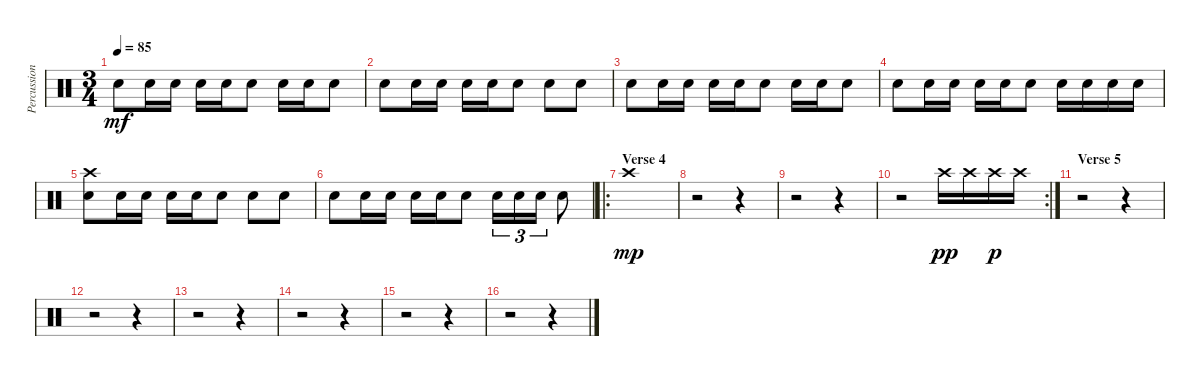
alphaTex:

\track ("Percussion" "Percussion") {instrument percussion}
\staff {score}
\articulation defaults
\ts (3 4)
\tempo 85
\clef neutral
\ks c "Electric Snare (hit)".8{dy mf} "Electric Snare (hit)".16 "Electric Snare (hit)".16 "Electric Snare (hit)".16 "Electric Snare (hit)".16 "Electric Snare (hit)".8 "Electric Snare (hit)".16 "Electric Snare (hit)".16 "Electric Snare (hit)".8
|
"Electric Snare (hit)".8 "Electric Snare (hit)".16 "Electric Snare (hit)".16 "Electric Snare (hit)".16 "Electric Snare (hit)".16 "Electric Snare (hit)".8 "Electric Snare (hit)".8 "Electric Snare (hit)".8 |
"Electric Snare (hit)".8 "Electric Snare (hit)".16 "Electric Snare (hit)".16 "Electric Snare (hit)".16 "Electric Snare (hit)".16 "Electric Snare (hit)".8 "Electric Snare (hit)".16 "Electric Snare (hit)".16 "Electric Snare (hit)".8 |
"Electric Snare (hit)".8 "Electric Snare (hit)".16 "Electric Snare (hit)".16 "Electric Snare (hit)".16 "Electric Snare (hit)".16 "Electric Snare (hit)".8 "Electric Snare (hit)".16 "Electric Snare (hit)".16 "Electric Snare (hit)".16 "Electric Snare (hit)".16 |
("Crash high (hit)" "Electric Snare (hit)").8 "Electric Snare (hit)".16 "Electric Snare (hit)".16 "Electric Snare (hit)".16 "Electric Snare (hit)".16 "Electric Snare (hit)".8 "Electric Snare (hit)".8 "Electric Snare (hit)".8 |
"Electric Snare (hit)".8 "Electric Snare (hit)".16 "Electric Snare (hit)".16 "Electric Snare (hit)".16 "Electric Snare (hit)".16 "Electric Snare (hit)".8 "Electric Snare (hit)".16{tu (3 2)} "Electric Snare (hit)".16{tu (3 2)} "Electric Snare (hit)".16{tu (3 2)} "Electric Snare (hit)".8 |
\ro
\section ("" "Verse 4")
"Crash high (hit)".1{dy mp} |
r.2 r.4 |
r.2 r.4 |
\rc 2
r.2 "Crash high (hit)".16{dy pp} "Crash high (hit)".16 "Crash high (hit)".16{dy p} "Crash high (hit)".16 |
\section ("" "Verse 5")
r.2 r.4 |
r.2 r.4 |
r.2 r.4 |
r.2 r.4 |
r.2 r.4 |
r.2 r.4
